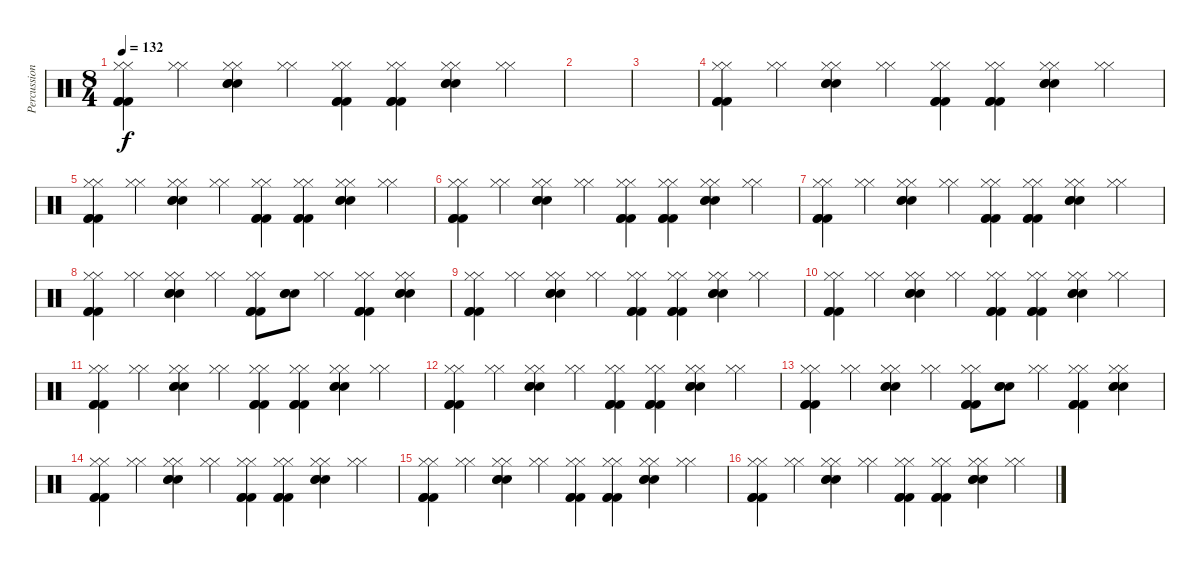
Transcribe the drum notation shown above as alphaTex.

\track ("Percussions" "Percussion") {instrument percussion}
\staff {score}
\articulation defaults
\ts (8 4)
\tempo 132
\clef neutral
\ks c
("Kick (hit) 2" "Kick (hit) 2" "Kick (hit) 2" "Hi-Hat (closed)" "Hi-Hat (closed)").4{dy f} ("Hi-Hat (closed)" "Hi-Hat (closed)").4 ("Electric Snare (hit)" "Electric Snare (hit)" "Electric Snare (hit)" "Hi-Hat (closed)" "Hi-Hat (closed)").4 ("Hi-Hat (closed)" "Hi-Hat (closed)").4 ("Kick (hit) 2" "Kick (hit) 2" "Kick (hit) 2" "Hi-Hat (closed)" "Hi-Hat (closed)").4 ("Kick (hit) 2" "Kick (hit) 2" "Kick (hit) 2" "Hi-Hat (closed)" "Hi-Hat (closed)").4 ("Electric Snare (hit)" "Electric Snare (hit)" "Electric Snare (hit)" "Hi-Hat (closed)" "Hi-Hat (closed)").4 ("Hi-Hat (closed)" "Hi-Hat (closed)").4 |
|
|
("Kick (hit) 2" "Kick (hit) 2" "Kick (hit) 2" "Hi-Hat (closed)" "Hi-Hat (closed)").4 ("Hi-Hat (closed)" "Hi-Hat (closed)").4 ("Electric Snare (hit)" "Electric Snare (hit)" "Electric Snare (hit)" "Hi-Hat (closed)" "Hi-Hat (closed)").4 ("Hi-Hat (closed)" "Hi-Hat (closed)").4 ("Kick (hit) 2" "Kick (hit) 2" "Kick (hit) 2" "Hi-Hat (closed)" "Hi-Hat (closed)").4 ("Kick (hit) 2" "Kick (hit) 2" "Kick (hit) 2" "Hi-Hat (closed)" "Hi-Hat (closed)").4 ("Electric Snare (hit)" "Electric Snare (hit)" "Electric Snare (hit)" "Hi-Hat (closed)" "Hi-Hat (closed)").4 ("Hi-Hat (closed)" "Hi-Hat (closed)").4 |
("Kick (hit) 2" "Kick (hit) 2" "Kick (hit) 2" "Hi-Hat (closed)" "Hi-Hat (closed)").4 ("Hi-Hat (closed)" "Hi-Hat (closed)").4 ("Electric Snare (hit)" "Electric Snare (hit)" "Electric Snare (hit)" "Hi-Hat (closed)" "Hi-Hat (closed)").4 ("Hi-Hat (closed)" "Hi-Hat (closed)").4 ("Kick (hit) 2" "Kick (hit) 2" "Kick (hit) 2" "Hi-Hat (closed)" "Hi-Hat (closed)").4 ("Kick (hit) 2" "Kick (hit) 2" "Kick (hit) 2" "Hi-Hat (closed)" "Hi-Hat (closed)").4 ("Electric Snare (hit)" "Electric Snare (hit)" "Electric Snare (hit)" "Hi-Hat (closed)" "Hi-Hat (closed)").4 ("Hi-Hat (closed)" "Hi-Hat (closed)").4 |
("Kick (hit) 2" "Kick (hit) 2" "Kick (hit) 2" "Hi-Hat (closed)" "Hi-Hat (closed)").4 ("Hi-Hat (closed)" "Hi-Hat (closed)").4 ("Electric Snare (hit)" "Electric Snare (hit)" "Electric Snare (hit)" "Hi-Hat (closed)" "Hi-Hat (closed)").4 ("Hi-Hat (closed)" "Hi-Hat (closed)").4 ("Kick (hit) 2" "Kick (hit) 2" "Kick (hit) 2" "Hi-Hat (closed)" "Hi-Hat (closed)").4 ("Kick (hit) 2" "Kick (hit) 2" "Kick (hit) 2" "Hi-Hat (closed)" "Hi-Hat (closed)").4 ("Electric Snare (hit)" "Electric Snare (hit)" "Electric Snare (hit)" "Hi-Hat (closed)" "Hi-Hat (closed)").4 ("Hi-Hat (closed)" "Hi-Hat (closed)").4 |
("Kick (hit) 2" "Kick (hit) 2" "Kick (hit) 2" "Hi-Hat (closed)" "Hi-Hat (closed)").4 ("Hi-Hat (closed)" "Hi-Hat (closed)").4 ("Electric Snare (hit)" "Electric Snare (hit)" "Electric Snare (hit)" "Hi-Hat (closed)" "Hi-Hat (closed)").4 ("Hi-Hat (closed)" "Hi-Hat (closed)").4 ("Kick (hit) 2" "Kick (hit) 2" "Kick (hit) 2" "Hi-Hat (closed)" "Hi-Hat (closed)").4 ("Kick (hit) 2" "Kick (hit) 2" "Kick (hit) 2" "Hi-Hat (closed)" "Hi-Hat (closed)").4 ("Electric Snare (hit)" "Electric Snare (hit)" "Electric Snare (hit)" "Hi-Hat (closed)" "Hi-Hat (closed)").4 ("Hi-Hat (closed)" "Hi-Hat (closed)").4 |
("Kick (hit) 2" "Kick (hit) 2" "Kick (hit) 2" "Hi-Hat (closed)" "Hi-Hat (closed)").4 ("Hi-Hat (closed)" "Hi-Hat (closed)").4 ("Electric Snare (hit)" "Electric Snare (hit)" "Electric Snare (hit)" "Hi-Hat (closed)" "Hi-Hat (closed)").4 ("Hi-Hat (closed)" "Hi-Hat (closed)").4 ("Kick (hit) 2" "Kick (hit) 2" "Kick (hit) 2" "Hi-Hat (closed)" "Hi-Hat (closed)").8 ("Electric Snare (hit)" "Electric Snare (hit)" "Electric Snare (hit)").8 ("Hi-Hat (closed)" "Hi-Hat (closed)").4 ("Kick (hit) 2" "Kick (hit) 2" "Kick (hit) 2" "Hi-Hat (closed)" "Hi-Hat (closed)").4 ("Electric Snare (hit)" "Electric Snare (hit)" "Electric Snare (hit)" "Hi-Hat (closed)" "Hi-Hat (closed)").4 |
("Kick (hit) 2" "Kick (hit) 2" "Kick (hit) 2" "Hi-Hat (closed)" "Hi-Hat (closed)").4 ("Hi-Hat (closed)" "Hi-Hat (closed)").4 ("Electric Snare (hit)" "Electric Snare (hit)" "Electric Snare (hit)" "Hi-Hat (closed)" "Hi-Hat (closed)").4 ("Hi-Hat (closed)" "Hi-Hat (closed)").4 ("Kick (hit) 2" "Kick (hit) 2" "Kick (hit) 2" "Hi-Hat (closed)" "Hi-Hat (closed)").4 ("Kick (hit) 2" "Kick (hit) 2" "Kick (hit) 2" "Hi-Hat (closed)" "Hi-Hat (closed)").4 ("Electric Snare (hit)" "Electric Snare (hit)" "Electric Snare (hit)" "Hi-Hat (closed)" "Hi-Hat (closed)").4 ("Hi-Hat (closed)" "Hi-Hat (closed)").4 |
("Kick (hit) 2" "Kick (hit) 2" "Kick (hit) 2" "Hi-Hat (closed)" "Hi-Hat (closed)").4 ("Hi-Hat (closed)" "Hi-Hat (closed)").4 ("Electric Snare (hit)" "Electric Snare (hit)" "Electric Snare (hit)" "Hi-Hat (closed)" "Hi-Hat (closed)").4 ("Hi-Hat (closed)" "Hi-Hat (closed)").4 ("Kick (hit) 2" "Kick (hit) 2" "Kick (hit) 2" "Hi-Hat (closed)" "Hi-Hat (closed)").4 ("Kick (hit) 2" "Kick (hit) 2" "Kick (hit) 2" "Hi-Hat (closed)" "Hi-Hat (closed)").4 ("Electric Snare (hit)" "Electric Snare (hit)" "Electric Snare (hit)" "Hi-Hat (closed)" "Hi-Hat (closed)").4 ("Hi-Hat (closed)" "Hi-Hat (closed)").4 |
("Kick (hit) 2" "Kick (hit) 2" "Kick (hit) 2" "Hi-Hat (closed)" "Hi-Hat (closed)").4 ("Hi-Hat (closed)" "Hi-Hat (closed)").4 ("Electric Snare (hit)" "Electric Snare (hit)" "Electric Snare (hit)" "Hi-Hat (closed)" "Hi-Hat (closed)").4 ("Hi-Hat (closed)" "Hi-Hat (closed)").4 ("Kick (hit) 2" "Kick (hit) 2" "Kick (hit) 2" "Hi-Hat (closed)" "Hi-Hat (closed)").4 ("Kick (hit) 2" "Kick (hit) 2" "Kick (hit) 2" "Hi-Hat (closed)" "Hi-Hat (closed)").4 ("Electric Snare (hit)" "Electric Snare (hit)" "Electric Snare (hit)" "Hi-Hat (closed)" "Hi-Hat (closed)").4 ("Hi-Hat (closed)" "Hi-Hat (closed)").4 |
("Kick (hit) 2" "Kick (hit) 2" "Kick (hit) 2" "Hi-Hat (closed)" "Hi-Hat (closed)").4 ("Hi-Hat (closed)" "Hi-Hat (closed)").4 ("Electric Snare (hit)" "Electric Snare (hit)" "Electric Snare (hit)" "Hi-Hat (closed)" "Hi-Hat (closed)").4 ("Hi-Hat (closed)" "Hi-Hat (closed)").4 ("Kick (hit) 2" "Kick (hit) 2" "Kick (hit) 2" "Hi-Hat (closed)" "Hi-Hat (closed)").4 ("Kick (hit) 2" "Kick (hit) 2" "Kick (hit) 2" "Hi-Hat (closed)" "Hi-Hat (closed)").4 ("Electric Snare (hit)" "Electric Snare (hit)" "Electric Snare (hit)" "Hi-Hat (closed)" "Hi-Hat (closed)").4 ("Hi-Hat (closed)" "Hi-Hat (closed)").4 |
("Kick (hit) 2" "Kick (hit) 2" "Kick (hit) 2" "Hi-Hat (closed)" "Hi-Hat (closed)").4 ("Hi-Hat (closed)" "Hi-Hat (closed)").4 ("Electric Snare (hit)" "Electric Snare (hit)" "Electric Snare (hit)" "Hi-Hat (closed)" "Hi-Hat (closed)").4 ("Hi-Hat (closed)" "Hi-Hat (closed)").4 ("Kick (hit) 2" "Kick (hit) 2" "Kick (hit) 2" "Hi-Hat (closed)" "Hi-Hat (closed)").8 ("Electric Snare (hit)" "Electric Snare (hit)" "Electric Snare (hit)").8 ("Hi-Hat (closed)" "Hi-Hat (closed)").4 ("Kick (hit) 2" "Kick (hit) 2" "Kick (hit) 2" "Hi-Hat (closed)" "Hi-Hat (closed)").4 ("Electric Snare (hit)" "Electric Snare (hit)" "Electric Snare (hit)" "Hi-Hat (closed)" "Hi-Hat (closed)").4 |
("Kick (hit) 2" "Kick (hit) 2" "Kick (hit) 2" "Hi-Hat (closed)" "Hi-Hat (closed)").4 ("Hi-Hat (closed)" "Hi-Hat (closed)").4 ("Electric Snare (hit)" "Electric Snare (hit)" "Electric Snare (hit)" "Hi-Hat (closed)" "Hi-Hat (closed)").4 ("Hi-Hat (closed)" "Hi-Hat (closed)").4 ("Kick (hit) 2" "Kick (hit) 2" "Kick (hit) 2" "Hi-Hat (closed)" "Hi-Hat (closed)").4 ("Kick (hit) 2" "Kick (hit) 2" "Kick (hit) 2" "Hi-Hat (closed)" "Hi-Hat (closed)").4 ("Electric Snare (hit)" "Electric Snare (hit)" "Electric Snare (hit)" "Hi-Hat (closed)" "Hi-Hat (closed)").4 ("Hi-Hat (closed)" "Hi-Hat (closed)").4 |
("Kick (hit) 2" "Kick (hit) 2" "Kick (hit) 2" "Hi-Hat (closed)" "Hi-Hat (closed)").4 ("Hi-Hat (closed)" "Hi-Hat (closed)").4 ("Electric Snare (hit)" "Electric Snare (hit)" "Electric Snare (hit)" "Hi-Hat (closed)" "Hi-Hat (closed)").4 ("Hi-Hat (closed)" "Hi-Hat (closed)").4 ("Kick (hit) 2" "Kick (hit) 2" "Kick (hit) 2" "Hi-Hat (closed)" "Hi-Hat (closed)").4 ("Kick (hit) 2" "Kick (hit) 2" "Kick (hit) 2" "Hi-Hat (closed)" "Hi-Hat (closed)").4 ("Electric Snare (hit)" "Electric Snare (hit)" "Electric Snare (hit)" "Hi-Hat (closed)" "Hi-Hat (closed)").4 ("Hi-Hat (closed)" "Hi-Hat (closed)").4 |
("Kick (hit) 2" "Kick (hit) 2" "Kick (hit) 2" "Hi-Hat (closed)" "Hi-Hat (closed)").4 ("Hi-Hat (closed)" "Hi-Hat (closed)").4 ("Electric Snare (hit)" "Electric Snare (hit)" "Electric Snare (hit)" "Hi-Hat (closed)" "Hi-Hat (closed)").4 ("Hi-Hat (closed)" "Hi-Hat (closed)").4 ("Kick (hit) 2" "Kick (hit) 2" "Kick (hit) 2" "Hi-Hat (closed)" "Hi-Hat (closed)").4 ("Kick (hit) 2" "Kick (hit) 2" "Kick (hit) 2" "Hi-Hat (closed)" "Hi-Hat (closed)").4 ("Electric Snare (hit)" "Electric Snare (hit)" "Electric Snare (hit)" "Hi-Hat (closed)" "Hi-Hat (closed)").4 ("Hi-Hat (closed)" "Hi-Hat (closed)").4
